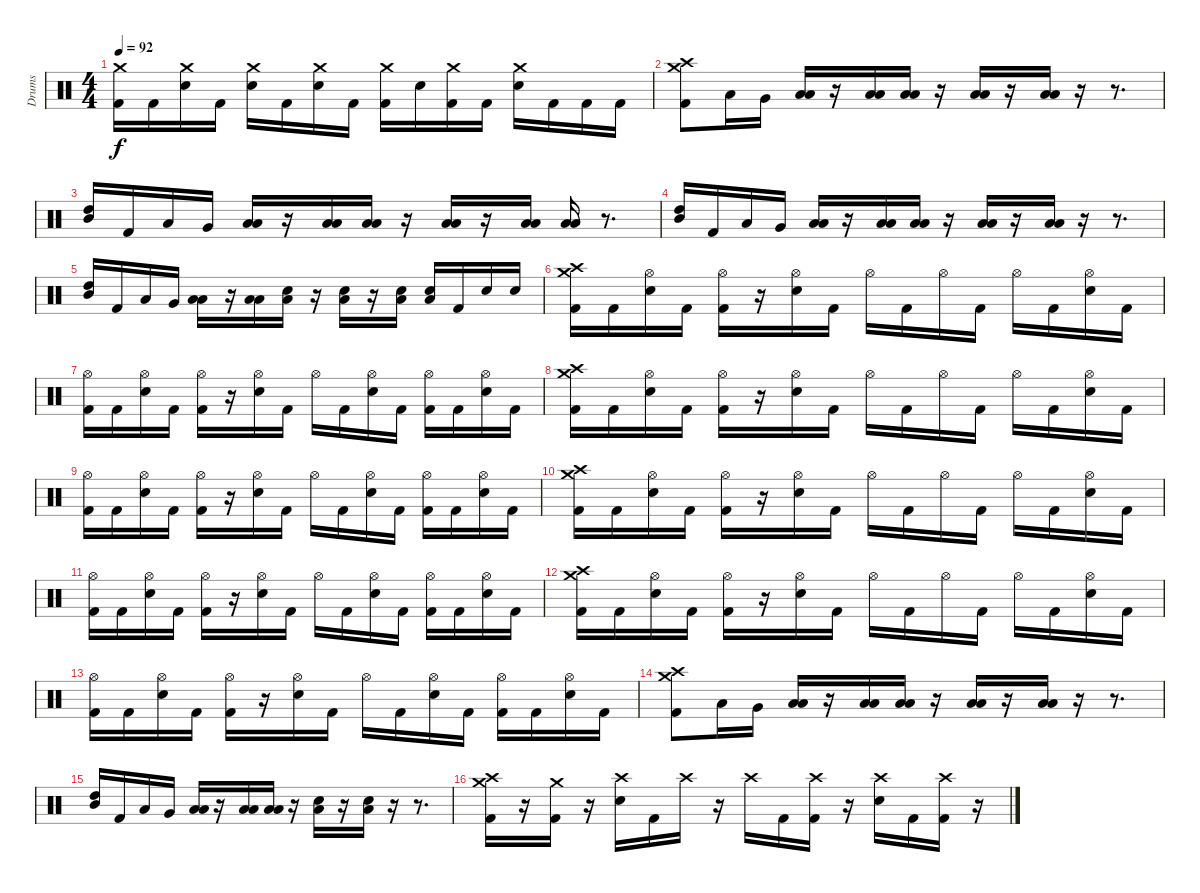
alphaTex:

\track ("Drums" "Drums") {instrument percussion}
\staff {score}
\articulation defaults
\ts (4 4)
\tempo 92
\clef neutral
\ks c
("Crash medium (hit)" "Kick (hit) 2").16{dy f} "Kick (hit) 2".16 ("Crash medium (hit)" "Snare (hit) 2").16 "Kick (hit) 2".16 ("Crash medium (hit)" "Snare (hit) 2").16 "Kick (hit) 2".16 ("Crash medium (hit)" "Snare (hit) 2").16 "Kick (hit) 2".16 ("Crash medium (hit)" "Kick (hit) 2").16 "Snare (hit) 2".16 ("Crash medium (hit)" "Kick (hit) 2").16 "Kick (hit) 2".16 ("Crash medium (hit)" "Snare (hit) 2").16 "Kick (hit) 2".16 "Kick (hit) 2".16 "Kick (hit) 2".16 |
("Crash high (hit)" "Crash medium (hit)" "Kick (hit) 2").8 "Low Tom (hit)".16 "Very Low Tom (hit)".16 ("Low Tom (hit)" "Low Floor Tom (hit)").16 r.16 ("Low Tom (hit)" "Low Floor Tom (hit)").16 ("Low Tom (hit)" "Low Floor Tom (hit)").16 r.16 ("Low Tom (hit)" "Low Floor Tom (hit)").16 r.16 ("Low Tom (hit)" "Low Floor Tom (hit)").16 r.16 r.8{d} |
("Mid Tom (hit)" "High Tom (hit)").16 "Kick (hit) 2".16 "Low Tom (hit)".16 "Very Low Tom (hit)".16 ("Low Tom (hit)" "Low Floor Tom (hit)").16 r.16 ("Low Tom (hit)" "Low Floor Tom (hit)").16 ("Low Tom (hit)" "Low Floor Tom (hit)").16 r.16 ("Low Tom (hit)" "Low Floor Tom (hit)").16 r.16 ("Low Tom (hit)" "Low Floor Tom (hit)").16 ("Low Tom (hit)" "Low Floor Tom (hit)").16 r.8{d} |
("Mid Tom (hit)" "High Tom (hit)").16 "Kick (hit) 2".16 "Low Tom (hit)".16 "Very Low Tom (hit)".16 ("Low Tom (hit)" "Low Floor Tom (hit)").16 r.16 ("Low Tom (hit)" "Low Floor Tom (hit)").16 ("Low Tom (hit)" "Low Floor Tom (hit)").16 r.16 ("Low Tom (hit)" "Low Floor Tom (hit)").16 r.16 ("Low Tom (hit)" "Low Floor Tom (hit)").16 r.16 r.8{d} |
("Mid Tom (hit)" "High Tom (hit)").16 "Kick (hit) 2".16 "Low Tom (hit)".16 "Very Low Tom (hit)".16 ("Low Tom (hit)" "Low Floor Tom (hit)").16 r.16 ("Low Tom (hit)" "Low Floor Tom (hit)").16 ("Snare (hit) 2" "Low Floor Tom (hit)").16 r.16 ("Snare (hit) 2" "Low Floor Tom (hit)").16 r.16 ("Snare (hit) 2" "Low Floor Tom (hit)").16 ("Snare (hit) 2" "Low Floor Tom (hit)").16 "Kick (hit) 2".16 "Snare (hit) 2".16 "Snare (hit) 2".16 |
("Crash high (hit)" "Crash medium (hit)" "Kick (hit) 2").16 "Kick (hit) 2".16 ("Hi-Hat (open)" "Snare (hit) 2").16 "Kick (hit) 2".16 ("Hi-Hat (open)" "Kick (hit) 2").16 r.16 ("Hi-Hat (open)" "Snare (hit) 2").16 "Kick (hit) 2".16 "Hi-Hat (open)".16 "Kick (hit) 2".16 "Hi-Hat (open)".16 "Kick (hit) 2".16 "Hi-Hat (open)".16 "Kick (hit) 2".16 ("Hi-Hat (open)" "Snare (hit) 2").16 "Kick (hit) 2".16 |
("Hi-Hat (open)" "Kick (hit) 2").16 "Kick (hit) 2".16 ("Hi-Hat (open)" "Snare (hit) 2").16 "Kick (hit) 2".16 ("Hi-Hat (open)" "Kick (hit) 2").16 r.16 ("Hi-Hat (open)" "Snare (hit) 2").16 "Kick (hit) 2".16 "Hi-Hat (open)".16 "Kick (hit) 2".16 ("Hi-Hat (open)" "Snare (hit) 2").16 "Kick (hit) 2".16 ("Hi-Hat (open)" "Kick (hit) 2").16 "Kick (hit) 2".16 ("Hi-Hat (open)" "Snare (hit) 2").16 "Kick (hit) 2".16 |
("Crash high (hit)" "Crash medium (hit)" "Kick (hit) 2").16 "Kick (hit) 2".16 ("Hi-Hat (open)" "Snare (hit) 2").16 "Kick (hit) 2".16 ("Hi-Hat (open)" "Kick (hit) 2").16 r.16 ("Hi-Hat (open)" "Snare (hit) 2").16 "Kick (hit) 2".16 "Hi-Hat (open)".16 "Kick (hit) 2".16 "Hi-Hat (open)".16 "Kick (hit) 2".16 "Hi-Hat (open)".16 "Kick (hit) 2".16 ("Hi-Hat (open)" "Snare (hit) 2").16 "Kick (hit) 2".16 |
("Hi-Hat (open)" "Kick (hit) 2").16 "Kick (hit) 2".16 ("Hi-Hat (open)" "Snare (hit) 2").16 "Kick (hit) 2".16 ("Hi-Hat (open)" "Kick (hit) 2").16 r.16 ("Hi-Hat (open)" "Snare (hit) 2").16 "Kick (hit) 2".16 "Hi-Hat (open)".16 "Kick (hit) 2".16 ("Hi-Hat (open)" "Snare (hit) 2").16 "Kick (hit) 2".16 ("Hi-Hat (open)" "Kick (hit) 2").16 "Kick (hit) 2".16 ("Hi-Hat (open)" "Snare (hit) 2").16 "Kick (hit) 2".16 |
("Crash high (hit)" "Crash medium (hit)" "Kick (hit) 2").16 "Kick (hit) 2".16 ("Hi-Hat (open)" "Snare (hit) 2").16 "Kick (hit) 2".16 ("Hi-Hat (open)" "Kick (hit) 2").16 r.16 ("Hi-Hat (open)" "Snare (hit) 2").16 "Kick (hit) 2".16 "Hi-Hat (open)".16 "Kick (hit) 2".16 "Hi-Hat (open)".16 "Kick (hit) 2".16 "Hi-Hat (open)".16 "Kick (hit) 2".16 ("Hi-Hat (open)" "Snare (hit) 2").16 "Kick (hit) 2".16 |
("Hi-Hat (open)" "Kick (hit) 2").16 "Kick (hit) 2".16 ("Hi-Hat (open)" "Snare (hit) 2").16 "Kick (hit) 2".16 ("Hi-Hat (open)" "Kick (hit) 2").16 r.16 ("Hi-Hat (open)" "Snare (hit) 2").16 "Kick (hit) 2".16 "Hi-Hat (open)".16 "Kick (hit) 2".16 ("Hi-Hat (open)" "Snare (hit) 2").16 "Kick (hit) 2".16 ("Hi-Hat (open)" "Kick (hit) 2").16 "Kick (hit) 2".16 ("Hi-Hat (open)" "Snare (hit) 2").16 "Kick (hit) 2".16 |
("Crash high (hit)" "Crash medium (hit)" "Kick (hit) 2").16 "Kick (hit) 2".16 ("Hi-Hat (open)" "Snare (hit) 2").16 "Kick (hit) 2".16 ("Hi-Hat (open)" "Kick (hit) 2").16 r.16 ("Hi-Hat (open)" "Snare (hit) 2").16 "Kick (hit) 2".16 "Hi-Hat (open)".16 "Kick (hit) 2".16 "Hi-Hat (open)".16 "Kick (hit) 2".16 "Hi-Hat (open)".16 "Kick (hit) 2".16 ("Hi-Hat (open)" "Snare (hit) 2").16 "Kick (hit) 2".16 |
("Hi-Hat (open)" "Kick (hit) 2").16 "Kick (hit) 2".16 ("Hi-Hat (open)" "Snare (hit) 2").16 "Kick (hit) 2".16 ("Hi-Hat (open)" "Kick (hit) 2").16 r.16 ("Hi-Hat (open)" "Snare (hit) 2").16 "Kick (hit) 2".16 "Hi-Hat (open)".16 "Kick (hit) 2".16 ("Hi-Hat (open)" "Snare (hit) 2").16 "Kick (hit) 2".16 ("Hi-Hat (open)" "Kick (hit) 2").16 "Kick (hit) 2".16 ("Hi-Hat (open)" "Snare (hit) 2").16 "Kick (hit) 2".16 |
("Crash high (hit)" "Crash medium (hit)" "Kick (hit) 2").8 "Low Tom (hit)".16 "Very Low Tom (hit)".16 ("Low Tom (hit)" "Low Floor Tom (hit)").16 r.16 ("Low Tom (hit)" "Low Floor Tom (hit)").16 ("Low Tom (hit)" "Low Floor Tom (hit)").16 r.16 ("Low Tom (hit)" "Low Floor Tom (hit)").16 r.16 ("Low Tom (hit)" "Low Floor Tom (hit)").16 r.16 r.8{d} |
("Mid Tom (hit)" "High Tom (hit)").16 "Kick (hit) 2".16 "Low Tom (hit)".16 "Very Low Tom (hit)".16 ("Low Tom (hit)" "Low Floor Tom (hit)").16 r.16 ("Low Tom (hit)" "Low Floor Tom (hit)").16 ("Low Tom (hit)" "Low Floor Tom (hit)").16 r.16 ("Snare (hit) 2" "Low Floor Tom (hit)").16 r.16 ("Snare (hit) 2" "Low Floor Tom (hit)").16 r.16 r.8{d} |
("Crash high (hit)" "Crash medium (hit)" "Kick (hit) 2").16 r.16 ("Crash medium (hit)" "Kick (hit) 2").16 r.16 ("Crash high (hit)" "Snare (hit) 2").16 "Kick (hit) 2".16 "Crash high (hit)".16 r.16 "Crash high (hit)".16 "Kick (hit) 2".16 ("Crash high (hit)" "Kick (hit) 2").16 r.16 ("Crash high (hit)" "Snare (hit) 2").16 "Kick (hit) 2".16 ("Crash high (hit)" "Kick (hit) 2").16 r.16
